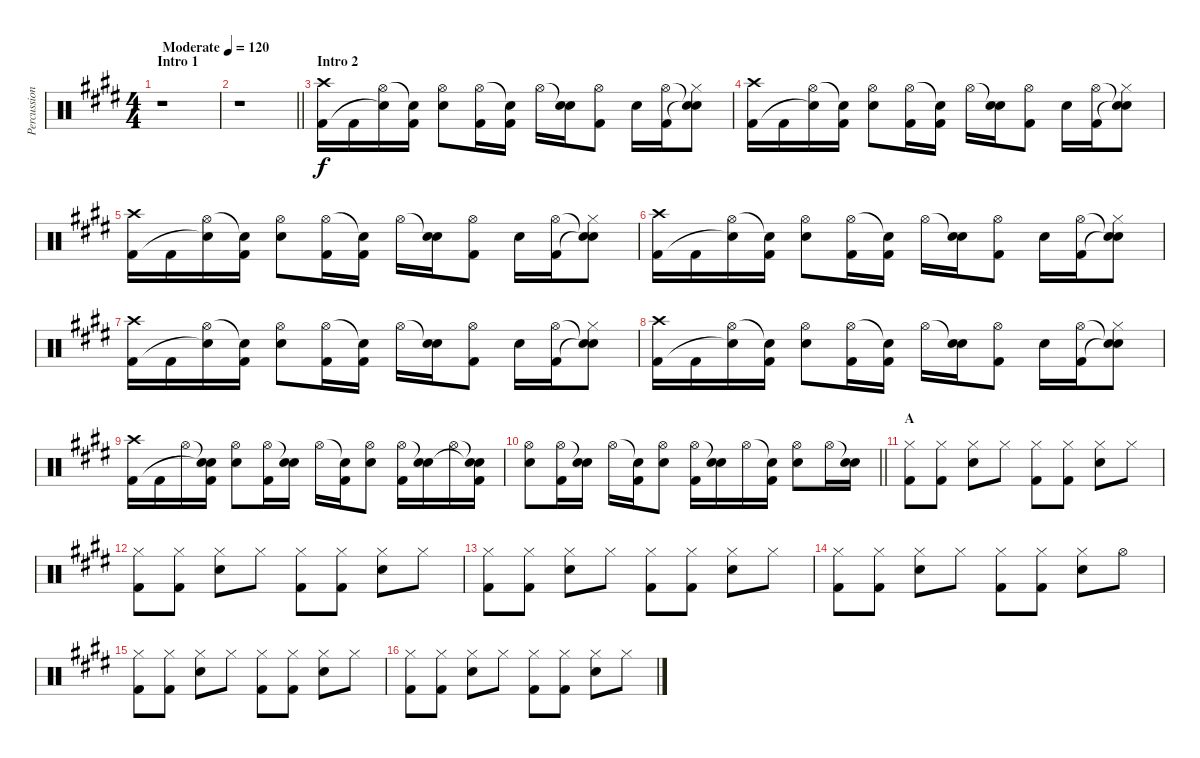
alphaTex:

\track ("Percussion" "Percussion") {instrument percussion}
\staff {score}
\articulation defaults
\ts (4 4)
\section ("" "Intro 1")
\tempo (120 "Moderate")
\clef neutral
\ks e
r.1{dy f} |
\barLineRight lightlight
r.1 |
\section ("" "Intro 2")
("Crash high (hit)" "Kick (hit) 2").16 "Kick (hit) 2".16 ("Hi-Hat (open)" "Snare (hit)"{t}).16 ("Snare (hit)"{t} "Kick (hit) 2").16 ("Hi-Hat (open)" "Electric Snare (hit)").8 ("Hi-Hat (open)" "Kick (hit) 2").16 ("Snare (hit)"{t} "Kick (hit) 2").16 "Hi-Hat (open)".16 ("Snare (hit)"{t} "Electric Snare (hit)").16 ("Hi-Hat (open)" "Kick (hit) 2").8 "Electric Snare (hit)".16 ("Hi-Hat (open)" "Kick (hit) 2").16 ("Snare (hit)"{t} "Snare (hit)"{t} "Hi-Hat (closed)").8 |
("Crash high (hit)" "Kick (hit) 2").16 "Kick (hit) 2".16 ("Hi-Hat (open)" "Snare (hit)"{t}).16 ("Snare (hit)"{t} "Kick (hit) 2").16 ("Hi-Hat (open)" "Electric Snare (hit)").8 ("Hi-Hat (open)" "Kick (hit) 2").16 ("Snare (hit)"{t} "Kick (hit) 2").16 "Hi-Hat (open)".16 ("Snare (hit)"{t} "Electric Snare (hit)").16 ("Hi-Hat (open)" "Kick (hit) 2").8 "Electric Snare (hit)".16 ("Hi-Hat (open)" "Kick (hit) 2").16 ("Snare (hit)"{t} "Snare (hit)"{t} "Hi-Hat (closed)").8 |
("Crash high (hit)" "Kick (hit) 2").16 "Kick (hit) 2".16 ("Hi-Hat (open)" "Snare (hit)"{t}).16 ("Snare (hit)"{t} "Kick (hit) 2").16 ("Hi-Hat (open)" "Electric Snare (hit)").8 ("Hi-Hat (open)" "Kick (hit) 2").16 ("Snare (hit)"{t} "Kick (hit) 2").16 "Hi-Hat (open)".16 ("Snare (hit)"{t} "Electric Snare (hit)").16 ("Hi-Hat (open)" "Kick (hit) 2").8 "Electric Snare (hit)".16 ("Hi-Hat (open)" "Kick (hit) 2").16 ("Snare (hit)"{t} "Snare (hit)"{t} "Hi-Hat (closed)").8 |
("Crash high (hit)" "Kick (hit) 2").16 "Kick (hit) 2".16 ("Hi-Hat (open)" "Snare (hit)"{t}).16 ("Snare (hit)"{t} "Kick (hit) 2").16 ("Hi-Hat (open)" "Electric Snare (hit)").8 ("Hi-Hat (open)" "Kick (hit) 2").16 ("Snare (hit)"{t} "Kick (hit) 2").16 "Hi-Hat (open)".16 ("Snare (hit)"{t} "Electric Snare (hit)").16 ("Hi-Hat (open)" "Kick (hit) 2").8 "Electric Snare (hit)".16 ("Hi-Hat (open)" "Kick (hit) 2").16 ("Snare (hit)"{t} "Snare (hit)"{t} "Hi-Hat (closed)").8 |
("Crash high (hit)" "Kick (hit) 2").16 "Kick (hit) 2".16 ("Hi-Hat (open)" "Snare (hit)"{t}).16 ("Snare (hit)"{t} "Kick (hit) 2").16 ("Hi-Hat (open)" "Electric Snare (hit)").8 ("Hi-Hat (open)" "Kick (hit) 2").16 ("Snare (hit)"{t} "Kick (hit) 2").16 "Hi-Hat (open)".16 ("Snare (hit)"{t} "Electric Snare (hit)").16 ("Hi-Hat (open)" "Kick (hit) 2").8 "Electric Snare (hit)".16 ("Hi-Hat (open)" "Kick (hit) 2").16 ("Snare (hit)"{t} "Snare (hit)"{t} "Hi-Hat (closed)").8 |
("Crash high (hit)" "Kick (hit) 2").16 "Kick (hit) 2".16 ("Hi-Hat (open)" "Snare (hit)"{t}).16 ("Snare (hit)"{t} "Kick (hit) 2").16 ("Hi-Hat (open)" "Electric Snare (hit)").8 ("Hi-Hat (open)" "Kick (hit) 2").16 ("Snare (hit)"{t} "Kick (hit) 2").16 "Hi-Hat (open)".16 ("Snare (hit)"{t} "Electric Snare (hit)").16 ("Hi-Hat (open)" "Kick (hit) 2").8 "Electric Snare (hit)".16 ("Hi-Hat (open)" "Kick (hit) 2").16 ("Snare (hit)"{t} "Snare (hit)"{t} "Hi-Hat (closed)").8 |
("Crash high (hit)" "Kick (hit) 2").16 "Kick (hit) 2".16 "Hi-Hat (open)".16 ("Snare (hit)"{t} "Snare (hit)"{t} "Kick (hit) 2").16 ("Hi-Hat (open)" "Electric Snare (hit)").8 ("Hi-Hat (open)" "Kick (hit) 2").16 ("Snare (hit)"{t} "Electric Snare (hit)").16 "Hi-Hat (open)".16 ("Snare (hit)"{t} "Kick (hit) 2").16 ("Hi-Hat (open)" "Electric Snare (hit)").8 ("Hi-Hat (open)" "Kick (hit) 2").16 ("Snare (hit)"{t} "Electric Snare (hit)").16 "Hi-Hat (open)".16 ("Snare (hit)"{t} "Snare (hit)"{t} "Kick (hit) 2").16 |
\barLineRight lightlight
("Hi-Hat (open)" "Electric Snare (hit)").8 ("Hi-Hat (open)" "Kick (hit) 2").16 ("Snare (hit)"{t} "Electric Snare (hit)").16 "Hi-Hat (open)".16 ("Snare (hit)"{t} "Kick (hit) 2").16 ("Hi-Hat (open)" "Electric Snare (hit)").8 ("Hi-Hat (open)" "Kick (hit) 2").16 ("Snare (hit)"{t} "Electric Snare (hit)").16 "Hi-Hat (open)".16 ("Snare (hit)"{t} "Kick (hit) 2").16 ("Hi-Hat (open)" "Electric Snare (hit)").8 "Hi-Hat (open)".16 ("Snare (hit)"{t} "Electric Snare (hit)").16 |
\section ("" "A")
("Hi-Hat (closed)" "Kick (hit) 2").8 ("Hi-Hat (closed)" "Kick (hit) 2").8 ("Hi-Hat (closed)" "Electric Snare (hit)").8 "Hi-Hat (closed)".8 ("Hi-Hat (closed)" "Kick (hit) 2").8 ("Hi-Hat (closed)" "Kick (hit) 2").8 ("Hi-Hat (closed)" "Electric Snare (hit)").8 "Hi-Hat (closed)".8 |
("Hi-Hat (closed)" "Kick (hit) 2").8 ("Hi-Hat (closed)" "Kick (hit) 2").8 ("Hi-Hat (closed)" "Electric Snare (hit)").8 "Hi-Hat (closed)".8 ("Hi-Hat (closed)" "Kick (hit) 2").8 ("Hi-Hat (closed)" "Kick (hit) 2").8 ("Hi-Hat (closed)" "Electric Snare (hit)").8 "Hi-Hat (closed)".8 |
("Hi-Hat (closed)" "Kick (hit) 2").8 ("Hi-Hat (closed)" "Kick (hit) 2").8 ("Hi-Hat (closed)" "Electric Snare (hit)").8 "Hi-Hat (closed)".8 ("Hi-Hat (closed)" "Kick (hit) 2").8 ("Hi-Hat (closed)" "Kick (hit) 2").8 ("Hi-Hat (closed)" "Electric Snare (hit)").8 "Hi-Hat (closed)".8 |
("Hi-Hat (closed)" "Kick (hit) 2").8 ("Hi-Hat (closed)" "Kick (hit) 2").8 ("Hi-Hat (closed)" "Electric Snare (hit)").8 "Hi-Hat (closed)".8 ("Hi-Hat (closed)" "Kick (hit) 2").8 ("Hi-Hat (closed)" "Kick (hit) 2").8 ("Hi-Hat (closed)" "Electric Snare (hit)").8 "Hi-Hat (open)".8 |
("Hi-Hat (closed)" "Kick (hit) 2").8 ("Hi-Hat (closed)" "Kick (hit) 2").8 ("Hi-Hat (closed)" "Electric Snare (hit)").8 "Hi-Hat (closed)".8 ("Hi-Hat (closed)" "Kick (hit) 2").8 ("Hi-Hat (closed)" "Kick (hit) 2").8 ("Hi-Hat (closed)" "Electric Snare (hit)").8 "Hi-Hat (closed)".8 |
("Hi-Hat (closed)" "Kick (hit) 2").8 ("Hi-Hat (closed)" "Kick (hit) 2").8 ("Hi-Hat (closed)" "Electric Snare (hit)").8 "Hi-Hat (closed)".8 ("Hi-Hat (closed)" "Kick (hit) 2").8 ("Hi-Hat (closed)" "Kick (hit) 2").8 ("Hi-Hat (closed)" "Electric Snare (hit)").8 "Hi-Hat (closed)".8
